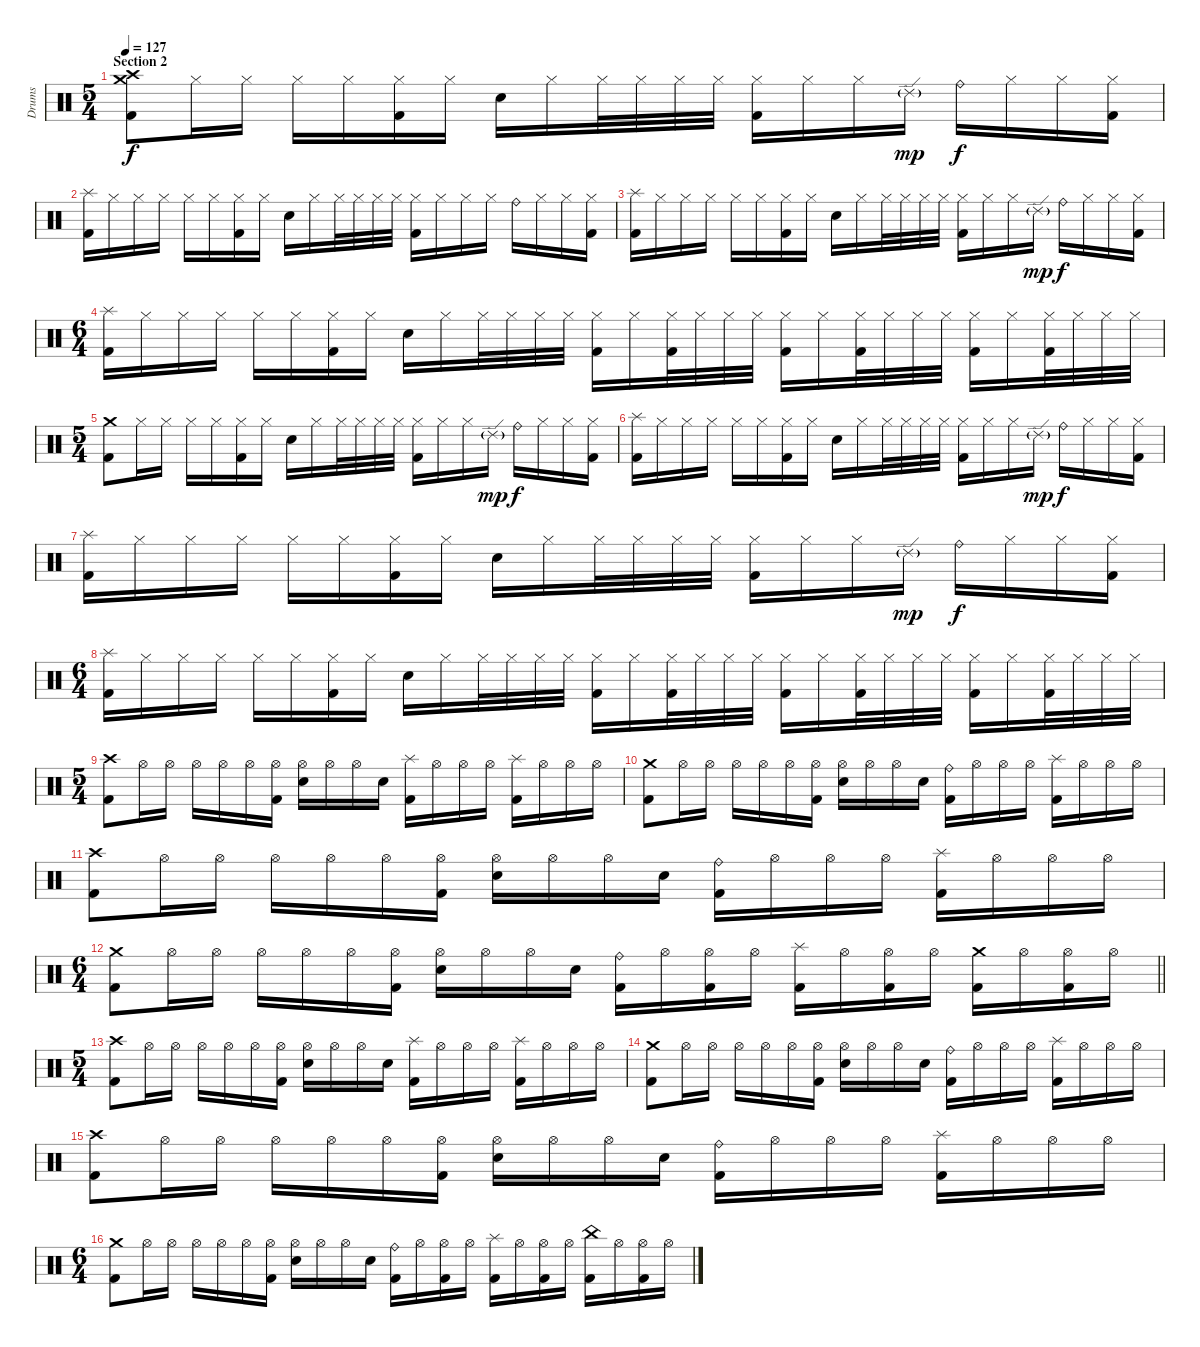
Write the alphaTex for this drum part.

\track ("Drums" "Drums") {instrument percussion}
\staff {score}
\articulation defaults
\ts (5 4)
\section ("" "Section 2")
\tempo 127
\clef neutral
\ks c
("Crash medium (hit)" "Crash high (hit)" "Kick (hit) 2").8{dy f} "Hi-Hat (closed)".16 "Hi-Hat (closed)".16 "Hi-Hat (closed)".16 "Hi-Hat (closed)".16 ("Hi-Hat (closed)" "Kick (hit) 2").16 "Hi-Hat (closed)".16 "Electric Snare (hit)".16 "Hi-Hat (closed)".16 "Hi-Hat (closed)".32 "Hi-Hat (closed)".32 "Hi-Hat (closed)".32 "Hi-Hat (closed)".32 ("Hi-Hat (closed)" "Kick (hit) 2").16 "Hi-Hat (closed)".16 "Hi-Hat (closed)".16 "Ride (edge) 2"{g}.16{dy mp} "Ride (bell)".16{dy f} "Hi-Hat (closed)".16 "Hi-Hat (closed)".16 ("Hi-Hat (closed)" "Kick (hit) 2").16 |
("Splash (hit)" "Kick (hit) 2").16 "Hi-Hat (closed)".16 "Hi-Hat (closed)".16 "Hi-Hat (closed)".16 "Hi-Hat (closed)".16 "Hi-Hat (closed)".16 ("Hi-Hat (closed)" "Kick (hit) 2").16 "Hi-Hat (closed)".16 "Electric Snare (hit)".16 "Hi-Hat (closed)".16 "Hi-Hat (closed)".32 "Hi-Hat (closed)".32 "Hi-Hat (closed)".32 "Hi-Hat (closed)".32 ("Hi-Hat (closed)" "Kick (hit) 2").16 "Hi-Hat (closed)".16 "Hi-Hat (closed)".16 "Hi-Hat (closed)".16 "Ride (bell)".16 "Hi-Hat (closed)".16 "Hi-Hat (closed)".16 ("Hi-Hat (closed)" "Kick (hit) 2").16 |
("Splash (hit)" "Kick (hit) 2").16 "Hi-Hat (closed)".16 "Hi-Hat (closed)".16 "Hi-Hat (closed)".16 "Hi-Hat (closed)".16 "Hi-Hat (closed)".16 ("Hi-Hat (closed)" "Kick (hit) 2").16 "Hi-Hat (closed)".16 "Electric Snare (hit)".16 "Hi-Hat (closed)".16 "Hi-Hat (closed)".32 "Hi-Hat (closed)".32 "Hi-Hat (closed)".32 "Hi-Hat (closed)".32 ("Hi-Hat (closed)" "Kick (hit) 2").16 "Hi-Hat (closed)".16 "Hi-Hat (closed)".16 "Ride (edge) 2"{g}.16{dy mp} "Ride (bell)".16{dy f} "Hi-Hat (closed)".16 "Hi-Hat (closed)".16 ("Hi-Hat (closed)" "Kick (hit) 2").16 |
\ts (6 4)
("Splash (hit)" "Kick (hit) 2").16 "Hi-Hat (closed)".16 "Hi-Hat (closed)".16 "Hi-Hat (closed)".16 "Hi-Hat (closed)".16 "Hi-Hat (closed)".16 ("Hi-Hat (closed)" "Kick (hit) 2").16 "Hi-Hat (closed)".16 "Electric Snare (hit)".16 "Hi-Hat (closed)".16 "Hi-Hat (closed)".32 "Hi-Hat (closed)".32 "Hi-Hat (closed)".32 "Hi-Hat (closed)".32 ("Hi-Hat (closed)" "Kick (hit) 2").16 "Hi-Hat (closed)".16 ("Hi-Hat (closed)" "Kick (hit) 2").32 "Hi-Hat (closed)".32 "Hi-Hat (closed)".32 "Hi-Hat (closed)".32 ("Hi-Hat (closed)" "Kick (hit) 2").16 "Hi-Hat (closed)".16 ("Hi-Hat (closed)" "Kick (hit) 2").32 "Hi-Hat (closed)".32 "Hi-Hat (closed)".32 "Hi-Hat (closed)".32 ("Hi-Hat (closed)" "Kick (hit) 2").16 "Hi-Hat (closed)".16 ("Hi-Hat (closed)" "Kick (hit) 2").32 "Hi-Hat (closed)".32 "Hi-Hat (closed)".32 "Hi-Hat (closed)".32 |
\ts (5 4)
("Crash medium (hit)" "Kick (hit) 2").8 "Hi-Hat (closed)".16 "Hi-Hat (closed)".16 "Hi-Hat (closed)".16 "Hi-Hat (closed)".16 ("Hi-Hat (closed)" "Kick (hit) 2").16 "Hi-Hat (closed)".16 "Electric Snare (hit)".16 "Hi-Hat (closed)".16 "Hi-Hat (closed)".32 "Hi-Hat (closed)".32 "Hi-Hat (closed)".32 "Hi-Hat (closed)".32 ("Hi-Hat (closed)" "Kick (hit) 2").16 "Hi-Hat (closed)".16 "Hi-Hat (closed)".16 "Ride (edge) 2"{g}.16{dy mp} "Ride (bell)".16{dy f} "Hi-Hat (closed)".16 "Hi-Hat (closed)".16 ("Hi-Hat (closed)" "Kick (hit) 2").16 |
("Splash (hit)" "Kick (hit) 2").16 "Hi-Hat (closed)".16 "Hi-Hat (closed)".16 "Hi-Hat (closed)".16 "Hi-Hat (closed)".16 "Hi-Hat (closed)".16 ("Hi-Hat (closed)" "Kick (hit) 2").16 "Hi-Hat (closed)".16 "Electric Snare (hit)".16 "Hi-Hat (closed)".16 "Hi-Hat (closed)".32 "Hi-Hat (closed)".32 "Hi-Hat (closed)".32 "Hi-Hat (closed)".32 ("Hi-Hat (closed)" "Kick (hit) 2").16 "Hi-Hat (closed)".16 "Hi-Hat (closed)".16 "Ride (edge) 2"{g}.16{dy mp} "Ride (bell)".16{dy f} "Hi-Hat (closed)".16 "Hi-Hat (closed)".16 ("Hi-Hat (closed)" "Kick (hit) 2").16 |
("Splash (hit)" "Kick (hit) 2").16 "Hi-Hat (closed)".16 "Hi-Hat (closed)".16 "Hi-Hat (closed)".16 "Hi-Hat (closed)".16 "Hi-Hat (closed)".16 ("Hi-Hat (closed)" "Kick (hit) 2").16 "Hi-Hat (closed)".16 "Electric Snare (hit)".16 "Hi-Hat (closed)".16 "Hi-Hat (closed)".32 "Hi-Hat (closed)".32 "Hi-Hat (closed)".32 "Hi-Hat (closed)".32 ("Hi-Hat (closed)" "Kick (hit) 2").16 "Hi-Hat (closed)".16 "Hi-Hat (closed)".16 "Ride (edge) 2"{g}.16{dy mp} "Ride (bell)".16{dy f} "Hi-Hat (closed)".16 "Hi-Hat (closed)".16 ("Hi-Hat (closed)" "Kick (hit) 2").16 |
\ts (6 4)
("Splash (hit)" "Kick (hit) 2").16 "Hi-Hat (closed)".16 "Hi-Hat (closed)".16 "Hi-Hat (closed)".16 "Hi-Hat (closed)".16 "Hi-Hat (closed)".16 ("Hi-Hat (closed)" "Kick (hit) 2").16 "Hi-Hat (closed)".16 "Electric Snare (hit)".16 "Hi-Hat (closed)".16 "Hi-Hat (closed)".32 "Hi-Hat (closed)".32 "Hi-Hat (closed)".32 "Hi-Hat (closed)".32 ("Hi-Hat (closed)" "Kick (hit) 2").16 "Hi-Hat (closed)".16 ("Hi-Hat (closed)" "Kick (hit) 2").32 "Hi-Hat (closed)".32 "Hi-Hat (closed)".32 "Hi-Hat (closed)".32 ("Hi-Hat (closed)" "Kick (hit) 2").16 "Hi-Hat (closed)".16 ("Hi-Hat (closed)" "Kick (hit) 2").32 "Hi-Hat (closed)".32 "Hi-Hat (closed)".32 "Hi-Hat (closed)".32 ("Hi-Hat (closed)" "Kick (hit) 2").16 "Hi-Hat (closed)".16 ("Hi-Hat (closed)" "Kick (hit) 2").32 "Hi-Hat (closed)".32 "Hi-Hat (closed)".32 "Hi-Hat (closed)".32 |
\ts (5 4)
("Crash high (hit)" "Kick (hit) 2").8 "Hi-Hat (open)".16 "Hi-Hat (open)".16 "Hi-Hat (open)".16 "Hi-Hat (open)".16 "Hi-Hat (open)".16 ("Hi-Hat (open)" "Kick (hit) 2").16 ("Hi-Hat (open)" "Electric Snare (hit)").16 "Hi-Hat (open)".16 "Hi-Hat (open)".16 "Electric Snare (hit)".16 ("Splash (hit)" "Kick (hit) 2").16 "Hi-Hat (open)".16 "Hi-Hat (open)".16 "Hi-Hat (open)".16 ("Splash (hit)" "Kick (hit) 2").16 "Hi-Hat (open)".16 "Hi-Hat (open)".16 "Hi-Hat (open)".16 |
("Crash medium (hit)" "Kick (hit) 2").8 "Hi-Hat (open)".16 "Hi-Hat (open)".16 "Hi-Hat (open)".16 "Hi-Hat (open)".16 "Hi-Hat (open)".16 ("Hi-Hat (open)" "Kick (hit) 2").16 ("Hi-Hat (open)" "Electric Snare (hit)").16 "Hi-Hat (open)".16 "Hi-Hat (open)".16 "Electric Snare (hit)".16 ("Ride (bell)" "Kick (hit) 2").16 "Hi-Hat (open)".16 "Hi-Hat (open)".16 "Hi-Hat (open)".16 ("Splash (hit)" "Kick (hit) 2").16 "Hi-Hat (open)".16 "Hi-Hat (open)".16 "Hi-Hat (open)".16 |
("Crash high (hit)" "Kick (hit) 2").8 "Hi-Hat (open)".16 "Hi-Hat (open)".16 "Hi-Hat (open)".16 "Hi-Hat (open)".16 "Hi-Hat (open)".16 ("Hi-Hat (open)" "Kick (hit) 2").16 ("Hi-Hat (open)" "Electric Snare (hit)").16 "Hi-Hat (open)".16 "Hi-Hat (open)".16 "Electric Snare (hit)".16 ("Ride (bell)" "Kick (hit) 2").16 "Hi-Hat (open)".16 "Hi-Hat (open)".16 "Hi-Hat (open)".16 ("Splash (hit)" "Kick (hit) 2").16 "Hi-Hat (open)".16 "Hi-Hat (open)".16 "Hi-Hat (open)".16 |
\ts (6 4)
\barLineRight lightlight
("Crash medium (hit)" "Kick (hit) 2").8 "Hi-Hat (open)".16 "Hi-Hat (open)".16 "Hi-Hat (open)".16 "Hi-Hat (open)".16 "Hi-Hat (open)".16 ("Hi-Hat (open)" "Kick (hit) 2").16 ("Hi-Hat (open)" "Electric Snare (hit)").16 "Hi-Hat (open)".16 "Hi-Hat (open)".16 "Electric Snare (hit)".16 ("Ride (bell)" "Kick (hit) 2").16 "Hi-Hat (open)".16 ("Hi-Hat (open)" "Kick (hit) 2").16 "Hi-Hat (open)".16 ("Splash (hit)" "Kick (hit) 2").16 "Hi-Hat (open)".16 ("Hi-Hat (open)" "Kick (hit) 2").16 "Hi-Hat (open)".16 ("Crash medium (hit)" "Kick (hit) 2").16 "Hi-Hat (open)".16 ("Hi-Hat (open)" "Kick (hit) 2").16 "Hi-Hat (open)".16 |
\ts (5 4)
("Crash high (hit)" "Kick (hit) 2").8 "Hi-Hat (open)".16 "Hi-Hat (open)".16 "Hi-Hat (open)".16 "Hi-Hat (open)".16 "Hi-Hat (open)".16 ("Hi-Hat (open)" "Kick (hit) 2").16 ("Hi-Hat (open)" "Electric Snare (hit)").16 "Hi-Hat (open)".16 "Hi-Hat (open)".16 "Electric Snare (hit)".16 ("Splash (hit)" "Kick (hit) 2").16 "Hi-Hat (open)".16 "Hi-Hat (open)".16 "Hi-Hat (open)".16 ("Splash (hit)" "Kick (hit) 2").16 "Hi-Hat (open)".16 "Hi-Hat (open)".16 "Hi-Hat (open)".16 |
("Crash medium (hit)" "Kick (hit) 2").8 "Hi-Hat (open)".16 "Hi-Hat (open)".16 "Hi-Hat (open)".16 "Hi-Hat (open)".16 "Hi-Hat (open)".16 ("Hi-Hat (open)" "Kick (hit) 2").16 ("Hi-Hat (open)" "Electric Snare (hit)").16 "Hi-Hat (open)".16 "Hi-Hat (open)".16 "Electric Snare (hit)".16 ("Ride (bell)" "Kick (hit) 2").16 "Hi-Hat (open)".16 "Hi-Hat (open)".16 "Hi-Hat (open)".16 ("Splash (hit)" "Kick (hit) 2").16 "Hi-Hat (open)".16 "Hi-Hat (open)".16 "Hi-Hat (open)".16 |
("Crash high (hit)" "Kick (hit) 2").8 "Hi-Hat (open)".16 "Hi-Hat (open)".16 "Hi-Hat (open)".16 "Hi-Hat (open)".16 "Hi-Hat (open)".16 ("Hi-Hat (open)" "Kick (hit) 2").16 ("Hi-Hat (open)" "Electric Snare (hit)").16 "Hi-Hat (open)".16 "Hi-Hat (open)".16 "Electric Snare (hit)".16 ("Ride (bell)" "Kick (hit) 2").16 "Hi-Hat (open)".16 "Hi-Hat (open)".16 "Hi-Hat (open)".16 ("Splash (hit)" "Kick (hit) 2").16 "Hi-Hat (open)".16 "Hi-Hat (open)".16 "Hi-Hat (open)".16 |
\ts (6 4)
("Crash medium (hit)" "Kick (hit) 2").8 "Hi-Hat (open)".16 "Hi-Hat (open)".16 "Hi-Hat (open)".16 "Hi-Hat (open)".16 "Hi-Hat (open)".16 ("Hi-Hat (open)" "Kick (hit) 2").16 ("Hi-Hat (open)" "Electric Snare (hit)").16 "Hi-Hat (open)".16 "Hi-Hat (open)".16 "Electric Snare (hit)".16 ("Ride (bell)" "Kick (hit) 2").16 "Hi-Hat (open)".16 ("Hi-Hat (open)" "Kick (hit) 2").16 "Hi-Hat (open)".16 ("Splash (hit)" "Kick (hit) 2").16 "Hi-Hat (open)".16 ("Hi-Hat (open)" "Kick (hit) 2").16 "Hi-Hat (open)".16 ("China (hit)" "Kick (hit) 2").16 "Hi-Hat (open)".16 ("Hi-Hat (open)" "Kick (hit) 2").16 "Hi-Hat (open)".16
